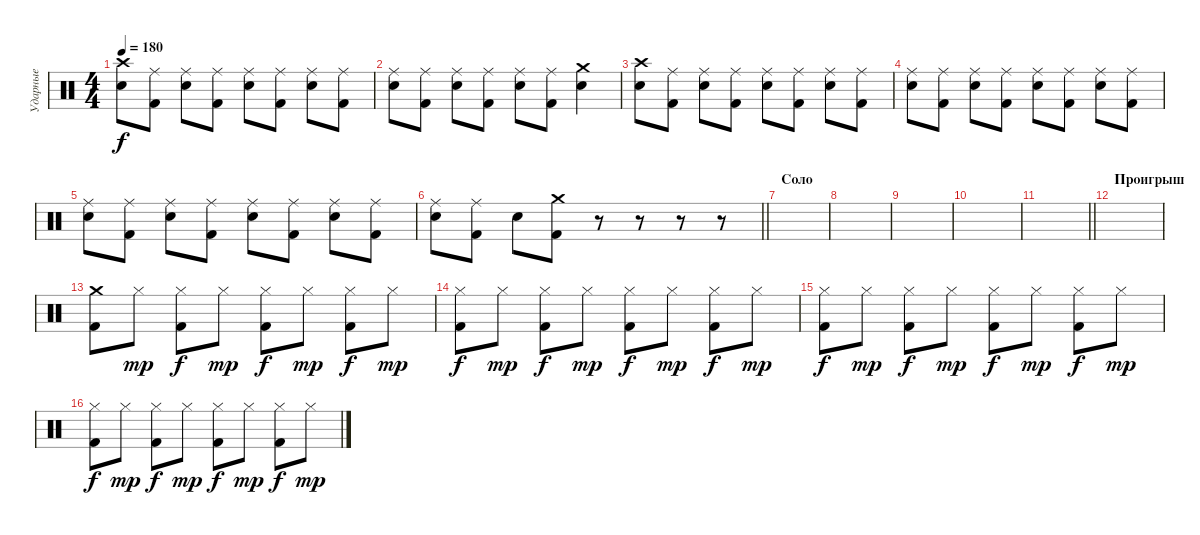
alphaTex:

\track ("Ударные" "Ударные") {instrument percussion}
\staff {score}
\articulation defaults
\ts (4 4)
\tempo 180
\clef neutral
\ks c
("Crash high (hit)" "Electric Snare (hit)").8{dy f} ("Ride (middle)" "Kick (hit) 2").8 ("Ride (middle)" "Electric Snare (hit)").8 ("Ride (middle)" "Kick (hit) 2").8 ("Ride (middle)" "Electric Snare (hit)").8 ("Ride (middle)" "Kick (hit) 2").8 ("Ride (middle)" "Electric Snare (hit)").8 ("Ride (middle)" "Kick (hit) 2").8 |
("Ride (middle)" "Electric Snare (hit)").8 ("Ride (middle)" "Kick (hit) 2").8 ("Ride (middle)" "Electric Snare (hit)").8 ("Ride (middle)" "Kick (hit) 2").8 ("Ride (middle)" "Electric Snare (hit)").8 ("Ride (middle)" "Kick (hit) 2").8 ("Crash medium (hit)" "Electric Snare (hit)").4 |
("Crash high (hit)" "Electric Snare (hit)").8 ("Ride (middle)" "Kick (hit) 2").8 ("Ride (middle)" "Electric Snare (hit)").8 ("Ride (middle)" "Kick (hit) 2").8 ("Ride (middle)" "Electric Snare (hit)").8 ("Ride (middle)" "Kick (hit) 2").8 ("Ride (middle)" "Electric Snare (hit)").8 ("Ride (middle)" "Kick (hit) 2").8 |
("Ride (middle)" "Electric Snare (hit)").8 ("Ride (middle)" "Kick (hit) 2").8 ("Ride (middle)" "Electric Snare (hit)").8 ("Ride (middle)" "Kick (hit) 2").8 ("Ride (middle)" "Electric Snare (hit)").8 ("Ride (middle)" "Kick (hit) 2").8 ("Ride (middle)" "Electric Snare (hit)").8 ("Ride (middle)" "Kick (hit) 2").8 |
("Ride (middle)" "Electric Snare (hit)").8 ("Ride (middle)" "Kick (hit) 2").8 ("Ride (middle)" "Electric Snare (hit)").8 ("Ride (middle)" "Kick (hit) 2").8 ("Ride (middle)" "Electric Snare (hit)").8 ("Ride (middle)" "Kick (hit) 2").8 ("Ride (middle)" "Electric Snare (hit)").8 ("Ride (middle)" "Kick (hit) 2").8 |
\barLineRight lightlight
("Ride (middle)" "Electric Snare (hit)").8 ("Ride (middle)" "Kick (hit) 2").8 "Electric Snare (hit)".8 ("Crash medium (hit)" "Kick (hit) 2").8 r.8 r.8 r.8 r.8 |
\section ("" "Соло")
|
|
|
|
\barLineRight lightlight
|
\section ("" "Проигрыш")
|
("Crash medium (hit)" "Kick (hit) 2").8 "Hi-Hat (closed)".8{dy mp} ("Hi-Hat (closed)" "Kick (hit) 2").8{dy f} "Hi-Hat (closed)".8{dy mp} ("Hi-Hat (closed)" "Kick (hit) 2").8{dy f} "Hi-Hat (closed)".8{dy mp} ("Hi-Hat (closed)" "Kick (hit) 2").8{dy f} "Hi-Hat (closed)".8{dy mp} |
("Hi-Hat (closed)" "Kick (hit) 2").8{dy f} "Hi-Hat (closed)".8{dy mp} ("Hi-Hat (closed)" "Kick (hit) 2").8{dy f} "Hi-Hat (closed)".8{dy mp} ("Hi-Hat (closed)" "Kick (hit) 2").8{dy f} "Hi-Hat (closed)".8{dy mp} ("Hi-Hat (closed)" "Kick (hit) 2").8{dy f} "Hi-Hat (closed)".8{dy mp} |
("Hi-Hat (closed)" "Kick (hit) 2").8{dy f} "Hi-Hat (closed)".8{dy mp} ("Hi-Hat (closed)" "Kick (hit) 2").8{dy f} "Hi-Hat (closed)".8{dy mp} ("Hi-Hat (closed)" "Kick (hit) 2").8{dy f} "Hi-Hat (closed)".8{dy mp} ("Hi-Hat (closed)" "Kick (hit) 2").8{dy f} "Hi-Hat (closed)".8{dy mp} |
("Hi-Hat (closed)" "Kick (hit) 2").8{dy f} "Hi-Hat (closed)".8{dy mp} ("Hi-Hat (closed)" "Kick (hit) 2").8{dy f} "Hi-Hat (closed)".8{dy mp} ("Hi-Hat (closed)" "Kick (hit) 2").8{dy f} "Hi-Hat (closed)".8{dy mp} ("Hi-Hat (closed)" "Kick (hit) 2").8{dy f} "Hi-Hat (closed)".8{dy mp}
